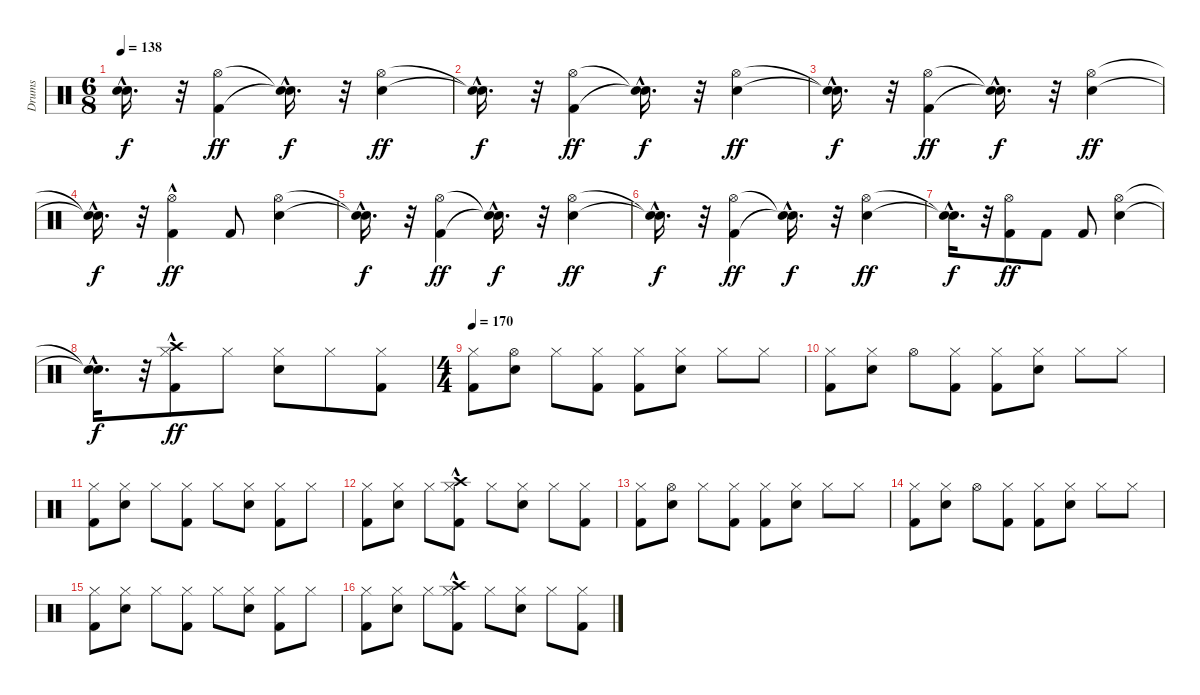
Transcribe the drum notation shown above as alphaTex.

\track ("Drums" "Drums") {instrument percussion}
\staff {score}
\articulation defaults
\ts (6 8)
\tempo 138
\clef neutral
\ks c
("Snare (hit)"{hac t} "Snare (hit)"{hac t}).16{d dy f} r.32 ("Kick (hit) 2" "Hi-Hat (open)").4{dy ff} ("Snare (hit)"{hac t} "Snare (hit)"{hac t}).16{d dy f} r.32 ("Snare (hit) 2" "Hi-Hat (open)").4{dy ff} |
("Snare (hit)"{hac t} "Snare (hit)"{hac t}).16{d dy f} r.32 ("Kick (hit) 2" "Hi-Hat (open)").4{dy ff} ("Snare (hit)"{hac t} "Snare (hit)"{hac t}).16{d dy f} r.32 ("Snare (hit) 2" "Hi-Hat (open)").4{dy ff} |
("Snare (hit)"{hac t} "Snare (hit)"{hac t}).16{d dy f} r.32 ("Kick (hit) 2" "Hi-Hat (open)").4{dy ff} ("Snare (hit)"{hac t} "Snare (hit)"{hac t}).16{d dy f} r.32 ("Snare (hit) 2" "Hi-Hat (open)").4{dy ff} |
("Snare (hit)"{hac t} "Snare (hit)"{hac t}).16{d dy f} r.32 ("Kick (hit) 2"{hac} "Hi-Hat (open)").4{dy ff} "Kick (hit) 2".8 ("Snare (hit) 2" "Hi-Hat (open)").4 |
("Snare (hit)"{hac t} "Snare (hit)"{hac t}).16{d dy f} r.32 ("Kick (hit) 2" "Hi-Hat (open)").4{dy ff} ("Snare (hit)"{hac t} "Snare (hit)"{hac t}).16{d dy f} r.32 ("Snare (hit) 2" "Hi-Hat (open)").4{dy ff} |
("Snare (hit)"{hac t} "Snare (hit)"{hac t}).16{d dy f} r.32 ("Kick (hit) 2" "Hi-Hat (open)").4{dy ff} ("Snare (hit)"{hac t} "Snare (hit)"{hac t}).16{d dy f} r.32 ("Snare (hit) 2" "Hi-Hat (open)").4{dy ff} |
("Snare (hit)"{hac t} "Snare (hit)"{hac t}).16{d dy f} r.32 ("Kick (hit) 2" "Hi-Hat (open)").8{dy ff} "Kick (hit) 2".8 "Kick (hit) 2".8 ("Snare (hit) 2" "Hi-Hat (open)").4 |
("Snare (hit)"{hac t} "Snare (hit)"{hac t}).16{d dy f} r.32 ("Kick (hit) 2" "Hi-Hat (closed)" "Crash high (hit)"{hac}).8{dy ff} "Hi-Hat (closed)".8 ("Snare (hit) 2" "Hi-Hat (closed)").8 "Hi-Hat (closed)".8 ("Kick (hit) 2" "Hi-Hat (closed)").8 |
\ts (4 4)
\tempo 170
("Kick (hit) 2" "Hi-Hat (closed)").8 ("Snare (hit) 2" "Hi-Hat (open)").8 "Hi-Hat (closed)".8 ("Kick (hit) 2" "Hi-Hat (closed)").8 ("Kick (hit) 2" "Hi-Hat (closed)").8 ("Snare (hit) 2" "Hi-Hat (closed)").8 "Hi-Hat (closed)".8 "Hi-Hat (closed)".8 |
("Kick (hit) 2" "Hi-Hat (closed)").8 ("Snare (hit) 2" "Hi-Hat (closed)").8 "Hi-Hat (open)".8 ("Kick (hit) 2" "Hi-Hat (closed)").8 ("Kick (hit) 2" "Hi-Hat (closed)").8 ("Snare (hit) 2" "Hi-Hat (closed)").8 "Hi-Hat (closed)".8 "Hi-Hat (closed)".8 |
("Kick (hit) 2" "Hi-Hat (closed)").8 ("Snare (hit) 2" "Hi-Hat (closed)").8 "Hi-Hat (closed)".8 ("Kick (hit) 2" "Hi-Hat (closed)").8 "Hi-Hat (closed)".8 ("Snare (hit) 2" "Hi-Hat (closed)").8 ("Kick (hit) 2" "Hi-Hat (closed)").8 "Hi-Hat (closed)".8 |
("Kick (hit) 2" "Hi-Hat (closed)").8 ("Snare (hit) 2" "Hi-Hat (closed)").8 "Hi-Hat (closed)".8 ("Kick (hit) 2" "Hi-Hat (closed)" "Crash high (hit)"{hac}).8 "Hi-Hat (closed)".8 ("Snare (hit) 2" "Hi-Hat (closed)").8 "Hi-Hat (closed)".8 ("Kick (hit) 2" "Hi-Hat (closed)").8 |
("Kick (hit) 2" "Hi-Hat (closed)").8 ("Snare (hit) 2" "Hi-Hat (open)").8 "Hi-Hat (closed)".8 ("Kick (hit) 2" "Hi-Hat (closed)").8 ("Kick (hit) 2" "Hi-Hat (closed)").8 ("Snare (hit) 2" "Hi-Hat (closed)").8 "Hi-Hat (closed)".8 "Hi-Hat (closed)".8 |
("Kick (hit) 2" "Hi-Hat (closed)").8 ("Snare (hit) 2" "Hi-Hat (closed)").8 "Hi-Hat (open)".8 ("Kick (hit) 2" "Hi-Hat (closed)").8 ("Kick (hit) 2" "Hi-Hat (closed)").8 ("Snare (hit) 2" "Hi-Hat (closed)").8 "Hi-Hat (closed)".8 "Hi-Hat (closed)".8 |
("Kick (hit) 2" "Hi-Hat (closed)").8 ("Snare (hit) 2" "Hi-Hat (closed)").8 "Hi-Hat (closed)".8 ("Kick (hit) 2" "Hi-Hat (closed)").8 "Hi-Hat (closed)".8 ("Snare (hit) 2" "Hi-Hat (closed)").8 ("Kick (hit) 2" "Hi-Hat (closed)").8 "Hi-Hat (closed)".8 |
("Kick (hit) 2" "Hi-Hat (closed)").8 ("Snare (hit) 2" "Hi-Hat (closed)").8 "Hi-Hat (closed)".8 ("Kick (hit) 2" "Hi-Hat (closed)" "Crash high (hit)"{hac}).8 "Hi-Hat (closed)".8 ("Snare (hit) 2" "Hi-Hat (closed)").8 "Hi-Hat (closed)".8 ("Kick (hit) 2" "Hi-Hat (closed)").8
